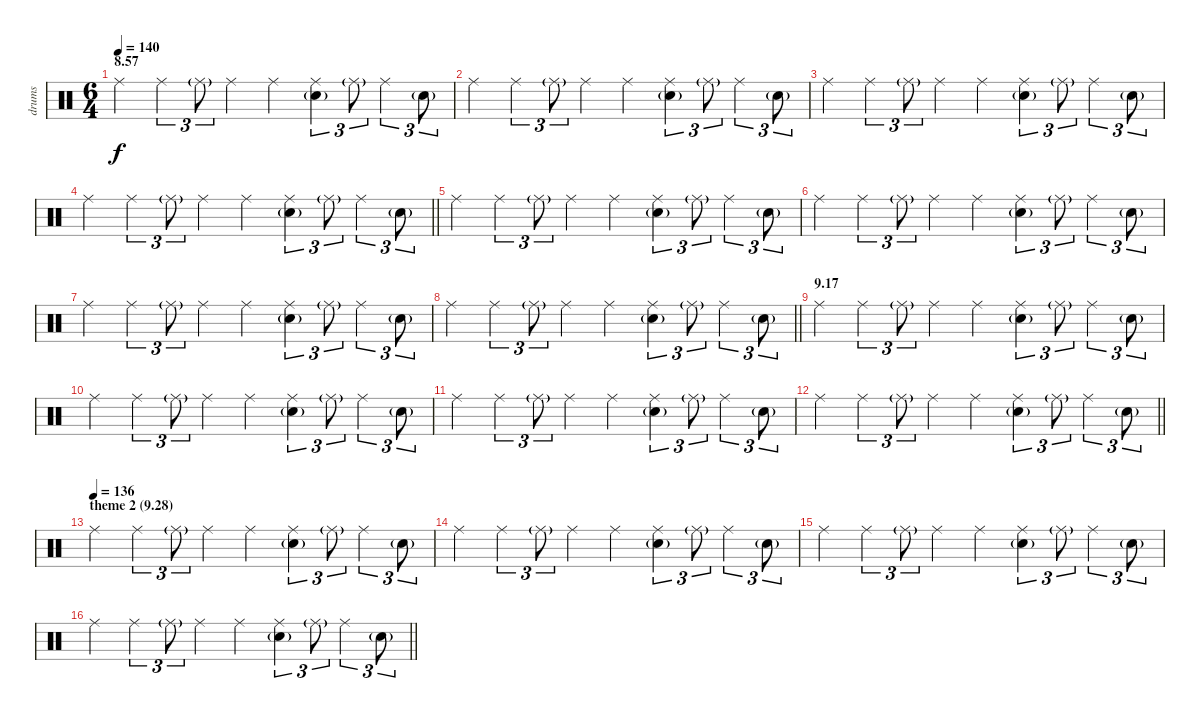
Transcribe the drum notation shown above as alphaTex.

\track ("drums" "drums") {instrument percussion}
\staff {score}
\articulation defaults
\ts (6 4)
\section ("" "8.57")
\tempo 140
\clef neutral
\ks c "Ride (middle)".4{dy f} "Ride (middle)".4{tu (3 2)} "Ride (middle)"{g}.8{tu (3 2)} "Ride (middle)".4 "Ride (middle)".4
("Ride (middle)" "Electric Snare (hit)"{g}).4{tu (3 2)} "Ride (middle)"{g}.8{tu (3 2)} "Ride (middle)".4{tu (3 2)} "Electric Snare (hit)"{g}.8{tu (3 2)} |
"Ride (middle)".4 "Ride (middle)".4{tu (3 2)} "Ride (middle)"{g}.8{tu (3 2)} "Ride (middle)".4 "Ride (middle)".4 ("Ride (middle)" "Electric Snare (hit)"{g}).4{tu (3 2)} "Ride (middle)"{g}.8{tu (3 2)} "Ride (middle)".4{tu (3 2)} "Electric Snare (hit)"{g}.8{tu (3 2)} |
"Ride (middle)".4 "Ride (middle)".4{tu (3 2)} "Ride (middle)"{g}.8{tu (3 2)} "Ride (middle)".4 "Ride (middle)".4 ("Ride (middle)" "Electric Snare (hit)"{g}).4{tu (3 2)} "Ride (middle)"{g}.8{tu (3 2)} "Ride (middle)".4{tu (3 2)} "Electric Snare (hit)"{g}.8{tu (3 2)} |
\barLineRight lightlight "Ride (middle)".4 "Ride (middle)".4{tu (3 2)} "Ride (middle)"{g}.8{tu (3 2)} "Ride (middle)".4 "Ride (middle)".4
("Ride (middle)" "Electric Snare (hit)"{g}).4{tu (3 2)} "Ride (middle)"{g}.8{tu (3 2)} "Ride (middle)".4{tu (3 2)} "Electric Snare (hit)"{g}.8{tu (3 2)} |
"Ride (middle)".4 "Ride (middle)".4{tu (3 2)} "Ride (middle)"{g}.8{tu (3 2)} "Ride (middle)".4 "Ride (middle)".4 ("Ride (middle)" "Electric Snare (hit)"{g}).4{tu (3 2)} "Ride (middle)"{g}.8{tu (3 2)} "Ride (middle)".4{tu (3 2)} "Electric Snare (hit)"{g}.8{tu (3 2)} |
"Ride (middle)".4 "Ride (middle)".4{tu (3 2)} "Ride (middle)"{g}.8{tu (3 2)} "Ride (middle)".4 "Ride (middle)".4 ("Ride (middle)" "Electric Snare (hit)"{g}).4{tu (3 2)} "Ride (middle)"{g}.8{tu (3 2)} "Ride (middle)".4{tu (3 2)} "Electric Snare (hit)"{g}.8{tu (3 2)} |
"Ride (middle)".4 "Ride (middle)".4{tu (3 2)} "Ride (middle)"{g}.8{tu (3 2)} "Ride (middle)".4 "Ride (middle)".4 ("Ride (middle)" "Electric Snare (hit)"{g}).4{tu (3 2)} "Ride (middle)"{g}.8{tu (3 2)} "Ride (middle)".4{tu (3 2)} "Electric Snare (hit)"{g}.8{tu (3 2)} |
\barLineRight lightlight "Ride (middle)".4 "Ride (middle)".4{tu (3 2)} "Ride (middle)"{g}.8{tu (3 2)} "Ride (middle)".4 "Ride (middle)".4
("Ride (middle)" "Electric Snare (hit)"{g}).4{tu (3 2)} "Ride (middle)"{g}.8{tu (3 2)} "Ride (middle)".4{tu (3 2)} "Electric Snare (hit)"{g}.8{tu (3 2)} |
\section ("" "9.17")
"Ride (middle)".4 "Ride (middle)".4{tu (3 2)} "Ride (middle)"{g}.8{tu (3 2)} "Ride (middle)".4 "Ride (middle)".4 ("Ride (middle)" "Electric Snare (hit)"{g}).4{tu (3 2)} "Ride (middle)"{g}.8{tu (3 2)} "Ride (middle)".4{tu (3 2)} "Electric Snare (hit)"{g}.8{tu (3 2)} |
"Ride (middle)".4 "Ride (middle)".4{tu (3 2)} "Ride (middle)"{g}.8{tu (3 2)} "Ride (middle)".4 "Ride (middle)".4 ("Ride (middle)" "Electric Snare (hit)"{g}).4{tu (3 2)} "Ride (middle)"{g}.8{tu (3 2)} "Ride (middle)".4{tu (3 2)} "Electric Snare (hit)"{g}.8{tu (3 2)} |
"Ride (middle)".4 "Ride (middle)".4{tu (3 2)} "Ride (middle)"{g}.8{tu (3 2)} "Ride (middle)".4 "Ride (middle)".4 ("Ride (middle)" "Electric Snare (hit)"{g}).4{tu (3 2)} "Ride (middle)"{g}.8{tu (3 2)} "Ride (middle)".4{tu (3 2)} "Electric Snare (hit)"{g}.8{tu (3 2)} |
\barLineRight lightlight "Ride (middle)".4 "Ride (middle)".4{tu (3 2)} "Ride (middle)"{g}.8{tu (3 2)} "Ride (middle)".4 "Ride (middle)".4
("Ride (middle)" "Electric Snare (hit)"{g}).4{tu (3 2)} "Ride (middle)"{g}.8{tu (3 2)} "Ride (middle)".4{tu (3 2)} "Electric Snare (hit)"{g}.8{tu (3 2)} |
\section ("" "theme 2 (9.28)")
\tempo (136)
"Ride (middle)".4 "Ride (middle)".4{tu (3 2)} "Ride (middle)"{g}.8{tu (3 2)} "Ride (middle)".4 "Ride (middle)".4 ("Ride (middle)" "Electric Snare (hit)"{g}).4{tu (3 2)} "Ride (middle)"{g}.8{tu (3 2)} "Ride (middle)".4{tu (3 2)} "Electric Snare (hit)"{g}.8{tu (3 2)} |
"Ride (middle)".4 "Ride (middle)".4{tu (3 2)} "Ride (middle)"{g}.8{tu (3 2)} "Ride (middle)".4 "Ride (middle)".4 ("Ride (middle)" "Electric Snare (hit)"{g}).4{tu (3 2)} "Ride (middle)"{g}.8{tu (3 2)} "Ride (middle)".4{tu (3 2)} "Electric Snare (hit)"{g}.8{tu (3 2)} |
"Ride (middle)".4 "Ride (middle)".4{tu (3 2)} "Ride (middle)"{g}.8{tu (3 2)} "Ride (middle)".4 "Ride (middle)".4 ("Ride (middle)" "Electric Snare (hit)"{g}).4{tu (3 2)} "Ride (middle)"{g}.8{tu (3 2)} "Ride (middle)".4{tu (3 2)} "Electric Snare (hit)"{g}.8{tu (3 2)} |
\barLineRight lightlight "Ride (middle)".4 "Ride (middle)".4{tu (3 2)} "Ride (middle)"{g}.8{tu (3 2)} "Ride (middle)".4 "Ride (middle)".4
("Ride (middle)" "Electric Snare (hit)"{g}).4{tu (3 2)} "Ride (middle)"{g}.8{tu (3 2)} "Ride (middle)".4{tu (3 2)} "Electric Snare (hit)"{g}.8{tu (3 2)}
